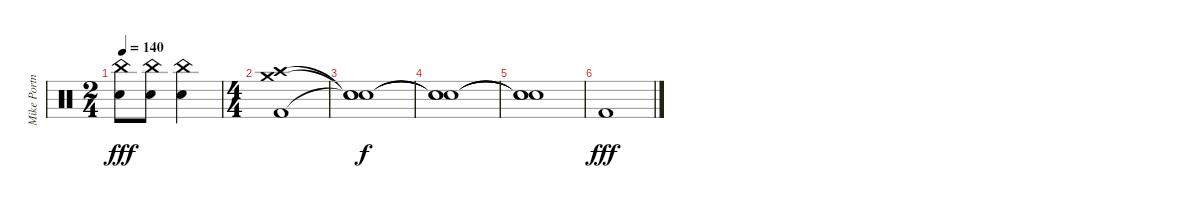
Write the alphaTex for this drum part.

\track ("Mike Portnoy - Drum" "Mike Portn") {instrument percussion}
\staff {score}
\articulation defaults
\ts (2 4)
\tempo 140
\clef neutral
\ks c
("China (hit)" "Snare (hit) 2").8{dy fff} ("China (hit)" "Snare (hit) 2").8 ("China (hit)" "Snare (hit) 2").4 |
\ts (4 4)
("Crash high (hit)" "Crash medium (hit)" "Kick (hit) 2").1 |
("Snare (hit)"{t} "Snare (hit)"{t} "Snare (hit)"{t}).1{dy f} |
("Snare (hit)"{t} "Snare (hit)"{t} "Snare (hit)"{t}).1 |
("Snare (hit)"{t} "Snare (hit)"{t} "Snare (hit)"{t}).1 |
"Kick (hit) 2".1{dy fff}
